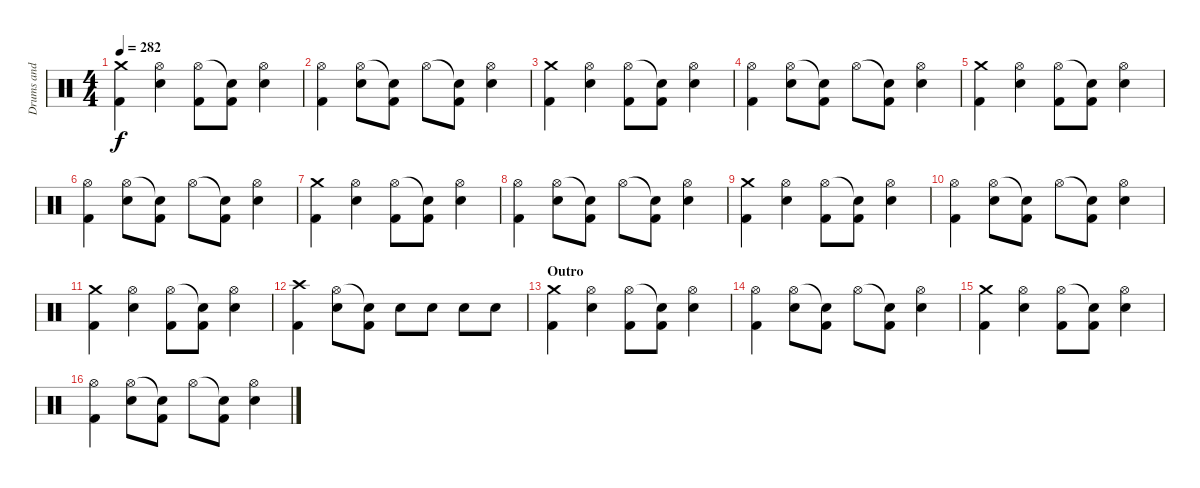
\track ("Drums and Percussion" "Drums and ") {instrument percussion}
\staff {score}
\articulation defaults
\ts (4 4)
\tempo 282
\clef neutral
\ks c
("Crash medium (hit)" "Kick (hit) 2").4{dy f} ("Hi-Hat (open)" "Snare (hit) 2").4 ("Hi-Hat (open)" "Kick (hit) 2").8 ("Snare (hit)"{t} "Kick (hit) 2").8 ("Hi-Hat (open)" "Snare (hit) 2").4 |
("Hi-Hat (open)" "Kick (hit) 2").4 ("Hi-Hat (open)" "Snare (hit) 2").8 ("Snare (hit)"{t} "Kick (hit) 2").8 "Hi-Hat (open)".8 ("Snare (hit)"{t} "Kick (hit) 2").8 ("Hi-Hat (open)" "Snare (hit) 2").4 |
("Crash medium (hit)" "Kick (hit) 2").4 ("Hi-Hat (open)" "Snare (hit) 2").4 ("Hi-Hat (open)" "Kick (hit) 2").8 ("Snare (hit)"{t} "Kick (hit) 2").8 ("Hi-Hat (open)" "Snare (hit) 2").4 |
("Hi-Hat (open)" "Kick (hit) 2").4 ("Hi-Hat (open)" "Snare (hit) 2").8 ("Snare (hit)"{t} "Kick (hit) 2").8 "Hi-Hat (open)".8 ("Snare (hit)"{t} "Kick (hit) 2").8 ("Hi-Hat (open)" "Snare (hit) 2").4 |
("Crash medium (hit)" "Kick (hit) 2").4 ("Hi-Hat (open)" "Snare (hit) 2").4 ("Hi-Hat (open)" "Kick (hit) 2").8 ("Snare (hit)"{t} "Kick (hit) 2").8 ("Hi-Hat (open)" "Snare (hit) 2").4 |
("Hi-Hat (open)" "Kick (hit) 2").4 ("Hi-Hat (open)" "Snare (hit) 2").8 ("Snare (hit)"{t} "Kick (hit) 2").8 "Hi-Hat (open)".8 ("Snare (hit)"{t} "Kick (hit) 2").8 ("Hi-Hat (open)" "Snare (hit) 2").4 |
("Crash medium (hit)" "Kick (hit) 2").4 ("Hi-Hat (open)" "Snare (hit) 2").4 ("Hi-Hat (open)" "Kick (hit) 2").8 ("Snare (hit)"{t} "Kick (hit) 2").8 ("Hi-Hat (open)" "Snare (hit) 2").4 |
("Hi-Hat (open)" "Kick (hit) 2").4 ("Hi-Hat (open)" "Snare (hit) 2").8 ("Snare (hit)"{t} "Kick (hit) 2").8 "Hi-Hat (open)".8 ("Snare (hit)"{t} "Kick (hit) 2").8 ("Hi-Hat (open)" "Snare (hit) 2").4 |
("Crash medium (hit)" "Kick (hit) 2").4 ("Hi-Hat (open)" "Snare (hit) 2").4 ("Hi-Hat (open)" "Kick (hit) 2").8 ("Snare (hit)"{t} "Kick (hit) 2").8 ("Hi-Hat (open)" "Snare (hit) 2").4 |
("Hi-Hat (open)" "Kick (hit) 2").4 ("Hi-Hat (open)" "Snare (hit) 2").8 ("Snare (hit)"{t} "Kick (hit) 2").8 "Hi-Hat (open)".8 ("Snare (hit)"{t} "Kick (hit) 2").8 ("Hi-Hat (open)" "Snare (hit) 2").4 |
("Crash medium (hit)" "Kick (hit) 2").4 ("Hi-Hat (open)" "Snare (hit) 2").4 ("Hi-Hat (open)" "Kick (hit) 2").8 ("Snare (hit)"{t} "Kick (hit) 2").8 ("Hi-Hat (open)" "Snare (hit) 2").4 |
("Crash high (hit)" "Kick (hit) 2").4 ("Hi-Hat (open)" "Snare (hit) 2").8 ("Snare (hit)"{t} "Kick (hit) 2").8 "Snare (hit) 2".8 "Snare (hit) 2".8 "Snare (hit) 2".8 "Snare (hit) 2".8 |
\section ("" "Outro")
("Crash medium (hit)" "Kick (hit) 2").4 ("Hi-Hat (open)" "Snare (hit) 2").4 ("Hi-Hat (open)" "Kick (hit) 2").8 ("Snare (hit)"{t} "Kick (hit) 2").8 ("Hi-Hat (open)" "Snare (hit) 2").4 |
("Hi-Hat (open)" "Kick (hit) 2").4 ("Hi-Hat (open)" "Snare (hit) 2").8 ("Snare (hit)"{t} "Kick (hit) 2").8 "Hi-Hat (open)".8 ("Snare (hit)"{t} "Kick (hit) 2").8 ("Hi-Hat (open)" "Snare (hit) 2").4 |
("Crash medium (hit)" "Kick (hit) 2").4 ("Hi-Hat (open)" "Snare (hit) 2").4 ("Hi-Hat (open)" "Kick (hit) 2").8 ("Snare (hit)"{t} "Kick (hit) 2").8 ("Hi-Hat (open)" "Snare (hit) 2").4 |
("Hi-Hat (open)" "Kick (hit) 2").4 ("Hi-Hat (open)" "Snare (hit) 2").8 ("Snare (hit)"{t} "Kick (hit) 2").8 "Hi-Hat (open)".8 ("Snare (hit)"{t} "Kick (hit) 2").8 ("Hi-Hat (open)" "Snare (hit) 2").4
